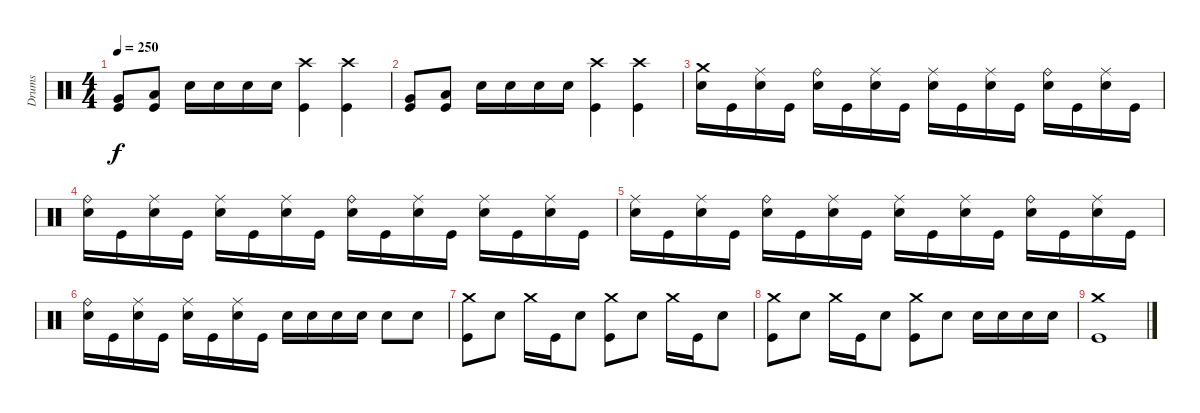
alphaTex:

\track ("Drums" "Drums") {instrument percussion}
\staff {score}
\articulation defaults
\ts (4 4)
\tempo 250
\clef neutral
\ks c
("Very Low Tom (hit)" "Kick (hit)").8{dy f} ("Low Floor Tom (hit)" "Kick (hit)").8 "Electric Snare (hit)".16 "Electric Snare (hit)".16 "Electric Snare (hit)".16 "Electric Snare (hit)".16 ("Crash high (hit)" "Kick (hit)").4 ("Crash high (hit)" "Kick (hit)").4 |
("Very Low Tom (hit)" "Kick (hit)").8 ("Low Floor Tom (hit)" "Kick (hit)").8 "Electric Snare (hit)".16 "Electric Snare (hit)".16 "Electric Snare (hit)".16 "Electric Snare (hit)".16 ("Crash high (hit)" "Kick (hit)").4 ("Crash high (hit)" "Kick (hit)").4 |
("Crash medium (hit)" "Electric Snare (hit)").16 "Kick (hit)".16 ("Ride (middle)" "Electric Snare (hit)").16 "Kick (hit)".16 ("Ride (bell)" "Electric Snare (hit)").16 "Kick (hit)".16 ("Ride (middle)" "Electric Snare (hit)").16 "Kick (hit)".16 ("Ride (middle)" "Electric Snare (hit)").16 "Kick (hit)".16 ("Ride (middle)" "Electric Snare (hit)").16 "Kick (hit)".16 ("Ride (bell)" "Electric Snare (hit)").16 "Kick (hit)".16 ("Ride (middle)" "Electric Snare (hit)").16 "Kick (hit)".16 |
("Ride (bell)" "Electric Snare (hit)").16 "Kick (hit)".16 ("Ride (middle)" "Electric Snare (hit)").16 "Kick (hit)".16 ("Ride (middle)" "Electric Snare (hit)").16 "Kick (hit)".16 ("Ride (middle)" "Electric Snare (hit)").16 "Kick (hit)".16 ("Ride (bell)" "Electric Snare (hit)").16 "Kick (hit)".16 ("Ride (middle)" "Electric Snare (hit)").16 "Kick (hit)".16 ("Ride (middle)" "Electric Snare (hit)").16 "Kick (hit)".16 ("Ride (middle)" "Electric Snare (hit)").16 "Kick (hit)".16 |
("Ride (middle)" "Electric Snare (hit)").16 "Kick (hit)".16 ("Ride (middle)" "Electric Snare (hit)").16 "Kick (hit)".16 ("Ride (bell)" "Electric Snare (hit)").16 "Kick (hit)".16 ("Ride (middle)" "Electric Snare (hit)").16 "Kick (hit)".16 ("Ride (middle)" "Electric Snare (hit)").16 "Kick (hit)".16 ("Ride (middle)" "Electric Snare (hit)").16 "Kick (hit)".16 ("Ride (bell)" "Electric Snare (hit)").16 "Kick (hit)".16 ("Ride (middle)" "Electric Snare (hit)").16 "Kick (hit)".16 |
("Ride (bell)" "Electric Snare (hit)").16 "Kick (hit)".16 ("Ride (middle)" "Electric Snare (hit)").16 "Kick (hit)".16 ("Ride (middle)" "Electric Snare (hit)").16 "Kick (hit)".16 ("Ride (middle)" "Electric Snare (hit)").16 "Kick (hit)".16 "Electric Snare (hit)".16 "Electric Snare (hit)".16 "Electric Snare (hit)".16 "Electric Snare (hit)".16 "Electric Snare (hit)".8 "Electric Snare (hit)".8 |
("Crash medium (hit)" "Kick (hit)").8 "Electric Snare (hit)".8 "Crash medium (hit)".16 "Kick (hit)".16 "Electric Snare (hit)".8 ("Crash medium (hit)" "Kick (hit)").8 "Electric Snare (hit)".8 "Crash medium (hit)".16 "Kick (hit)".16 "Electric Snare (hit)".8 |
("Crash medium (hit)" "Kick (hit)").8 "Electric Snare (hit)".8 "Crash medium (hit)".16 "Kick (hit)".16 "Electric Snare (hit)".8 ("Crash medium (hit)" "Kick (hit)").8 "Electric Snare (hit)".8 "Electric Snare (hit)".16 "Electric Snare (hit)".16 "Electric Snare (hit)".16 "Electric Snare (hit)".16 |
("Crash medium (hit)" "Kick (hit)").1
